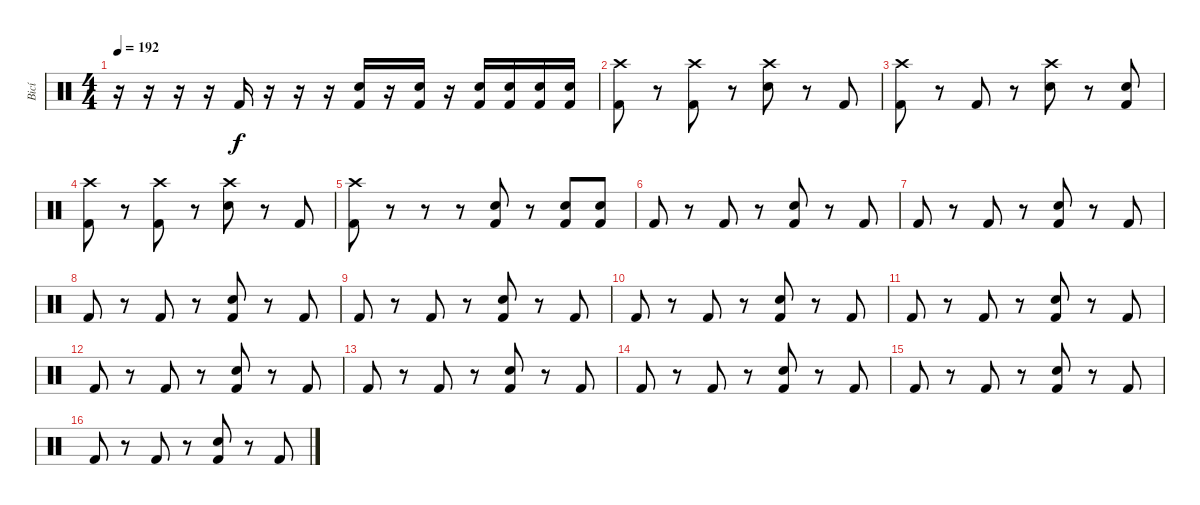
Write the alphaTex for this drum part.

\track ("Bicí" "Bicí") {instrument percussion}
\staff {score}
\articulation defaults
\ts (4 4)
\tempo 192
\clef neutral
\ks c
r.16{dy f} r.16 r.16 r.16 "Kick (hit) 2".16 r.16 r.16 r.16 ("Electric Snare (hit)" "Kick (hit) 2").16 r.16 ("Electric Snare (hit)" "Kick (hit) 2").16 r.16 ("Electric Snare (hit)" "Kick (hit) 2").16 ("Electric Snare (hit)" "Kick (hit) 2").16 ("Electric Snare (hit)" "Kick (hit) 2").16 ("Electric Snare (hit)" "Kick (hit) 2").16 |
("Crash high (hit)" "Kick (hit) 2").8 r.8 ("Crash high (hit)" "Kick (hit) 2").8 r.8 ("Crash high (hit)" "Electric Snare (hit)").8 r.8 "Kick (hit) 2".8 |
("Crash high (hit)" "Kick (hit) 2").8 r.8 "Kick (hit) 2".8 r.8 ("Crash high (hit)" "Electric Snare (hit)").8 r.8 ("Electric Snare (hit)" "Kick (hit) 2").8 |
("Crash high (hit)" "Kick (hit) 2").8 r.8 ("Crash high (hit)" "Kick (hit) 2").8 r.8 ("Crash high (hit)" "Electric Snare (hit)").8 r.8 "Kick (hit) 2".8 |
("Crash high (hit)" "Kick (hit) 2").8 r.8 r.8 r.8 ("Electric Snare (hit)" "Kick (hit) 2").8 r.8 ("Electric Snare (hit)" "Kick (hit) 2").8 ("Electric Snare (hit)" "Kick (hit) 2").8 |
"Kick (hit) 2".8 r.8 "Kick (hit) 2".8 r.8 ("Electric Snare (hit)" "Kick (hit) 2").8 r.8 "Kick (hit) 2".8 |
"Kick (hit) 2".8 r.8 "Kick (hit) 2".8 r.8 ("Electric Snare (hit)" "Kick (hit) 2").8 r.8 "Kick (hit) 2".8 |
"Kick (hit) 2".8 r.8 "Kick (hit) 2".8 r.8 ("Electric Snare (hit)" "Kick (hit) 2").8 r.8 "Kick (hit) 2".8 |
"Kick (hit) 2".8 r.8 "Kick (hit) 2".8 r.8 ("Electric Snare (hit)" "Kick (hit) 2").8 r.8 "Kick (hit) 2".8 |
"Kick (hit) 2".8 r.8 "Kick (hit) 2".8 r.8 ("Electric Snare (hit)" "Kick (hit) 2").8 r.8 "Kick (hit) 2".8 |
"Kick (hit) 2".8 r.8 "Kick (hit) 2".8 r.8 ("Electric Snare (hit)" "Kick (hit) 2").8 r.8 "Kick (hit) 2".8 |
"Kick (hit) 2".8 r.8 "Kick (hit) 2".8 r.8 ("Electric Snare (hit)" "Kick (hit) 2").8 r.8 "Kick (hit) 2".8 |
"Kick (hit) 2".8 r.8 "Kick (hit) 2".8 r.8 ("Electric Snare (hit)" "Kick (hit) 2").8 r.8 "Kick (hit) 2".8 |
"Kick (hit) 2".8 r.8 "Kick (hit) 2".8 r.8 ("Electric Snare (hit)" "Kick (hit) 2").8 r.8 "Kick (hit) 2".8 |
"Kick (hit) 2".8 r.8 "Kick (hit) 2".8 r.8 ("Electric Snare (hit)" "Kick (hit) 2").8 r.8 "Kick (hit) 2".8 |
"Kick (hit) 2".8 r.8 "Kick (hit) 2".8 r.8 ("Electric Snare (hit)" "Kick (hit) 2").8 r.8 "Kick (hit) 2".8
